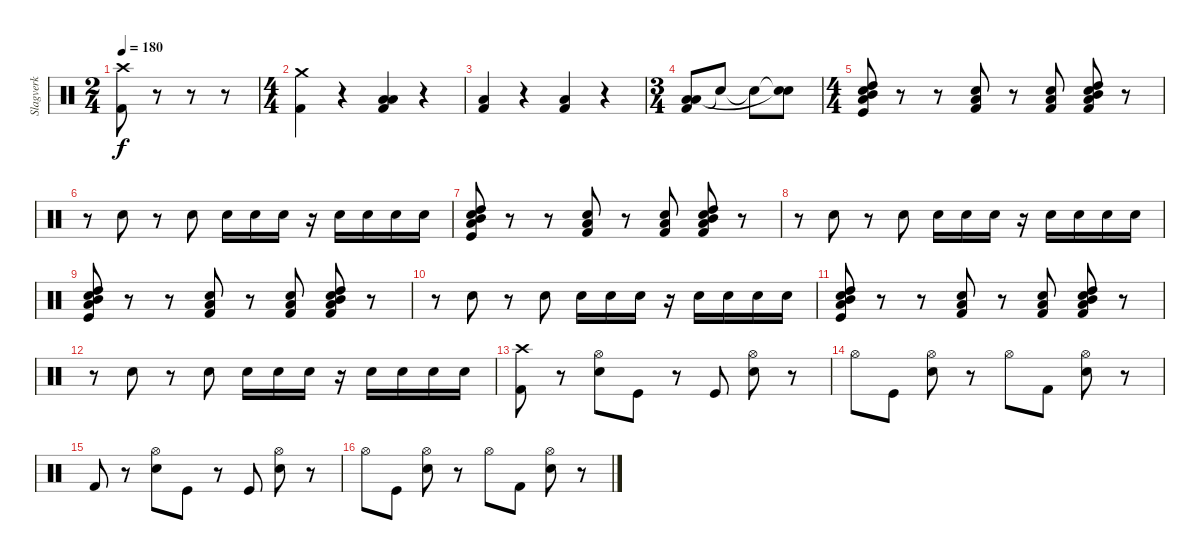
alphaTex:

\track ("Slagverk" "Slagverk") {instrument percussion}
\staff {score}
\articulation defaults
\ts (2 4)
\tempo 180
\clef neutral
\ks c
("Crash high (hit)" "Kick (hit) 2").8{dy f} r.8 r.8 r.8 |
\ts (4 4)
("Crash medium (hit)" "Kick (hit) 2").4 r.4 ("Low Floor Tom (hit)" "Low Tom (hit)" "Kick (hit) 2").4 r.4 |
("Low Floor Tom (hit)" "Kick (hit) 2").4 r.4 ("Low Floor Tom (hit)" "Kick (hit) 2").4 r.4 |
\ts (3 4)
("Low Tom (hit)" "Low Floor Tom (hit)" "Kick (hit) 2").8 "Snare (hit)"{t}.8 "Snare (hit)"{t}.8 ("Snare (hit)"{t} "Snare (hit)"{t}).8 |
\ts (4 4)
("Electric Snare (hit)" "Low Tom (hit)" "Mid Tom (hit)" "High Tom (hit)" "Kick (hit)").8 r.8 r.8 ("Electric Snare (hit)" "Low Tom (hit)" "Kick (hit) 2").8 r.8 ("Electric Snare (hit)" "Low Tom (hit)" "Kick (hit) 2").8 ("Electric Snare (hit)" "Mid Tom (hit)" "High Tom (hit)" "Low Tom (hit)" "Kick (hit) 2").8 r.8 |
r.8 "Electric Snare (hit)".8 r.8 "Electric Snare (hit)".8 "Electric Snare (hit)".16 "Electric Snare (hit)".16 "Electric Snare (hit)".16 r.16 "Electric Snare (hit)".16 "Electric Snare (hit)".16 "Electric Snare (hit)".16 "Electric Snare (hit)".16 |
("Electric Snare (hit)" "Low Tom (hit)" "Mid Tom (hit)" "High Tom (hit)" "Kick (hit)").8 r.8 r.8 ("Electric Snare (hit)" "Low Tom (hit)" "Kick (hit) 2").8 r.8 ("Electric Snare (hit)" "Low Tom (hit)" "Kick (hit) 2").8 ("Electric Snare (hit)" "Mid Tom (hit)" "High Tom (hit)" "Low Tom (hit)" "Kick (hit) 2").8 r.8 |
r.8 "Electric Snare (hit)".8 r.8 "Electric Snare (hit)".8 "Electric Snare (hit)".16 "Electric Snare (hit)".16 "Electric Snare (hit)".16 r.16 "Electric Snare (hit)".16 "Electric Snare (hit)".16 "Electric Snare (hit)".16 "Electric Snare (hit)".16 |
("Electric Snare (hit)" "Low Tom (hit)" "Mid Tom (hit)" "High Tom (hit)" "Kick (hit)").8 r.8 r.8 ("Electric Snare (hit)" "Low Tom (hit)" "Kick (hit) 2").8 r.8 ("Electric Snare (hit)" "Low Tom (hit)" "Kick (hit) 2").8 ("Electric Snare (hit)" "Mid Tom (hit)" "High Tom (hit)" "Low Tom (hit)" "Kick (hit) 2").8 r.8 |
r.8 "Electric Snare (hit)".8 r.8 "Electric Snare (hit)".8 "Electric Snare (hit)".16 "Electric Snare (hit)".16 "Electric Snare (hit)".16 r.16 "Electric Snare (hit)".16 "Electric Snare (hit)".16 "Electric Snare (hit)".16 "Electric Snare (hit)".16 |
("Electric Snare (hit)" "Low Tom (hit)" "Mid Tom (hit)" "High Tom (hit)" "Kick (hit)").8 r.8 r.8 ("Electric Snare (hit)" "Low Tom (hit)" "Kick (hit) 2").8 r.8 ("Electric Snare (hit)" "Low Tom (hit)" "Kick (hit) 2").8 ("Electric Snare (hit)" "Mid Tom (hit)" "High Tom (hit)" "Low Tom (hit)" "Kick (hit) 2").8 r.8 |
r.8 "Electric Snare (hit)".8 r.8 "Electric Snare (hit)".8 "Electric Snare (hit)".16 "Electric Snare (hit)".16 "Electric Snare (hit)".16 r.16 "Electric Snare (hit)".16 "Electric Snare (hit)".16 "Electric Snare (hit)".16 "Electric Snare (hit)".16 |
("Crash high (hit)" "Kick (hit) 2").8 r.8 ("Hi-Hat (open)" "Electric Snare (hit)").8 "Kick (hit)".8 r.8 "Kick (hit)".8 ("Hi-Hat (open)" "Electric Snare (hit)").8 r.8 |
"Hi-Hat (open)".8 "Kick (hit)".8 ("Hi-Hat (open)" "Electric Snare (hit)").8 r.8 "Hi-Hat (open)".8 "Kick (hit) 2".8 ("Hi-Hat (open)" "Electric Snare (hit)").8 r.8 |
"Kick (hit) 2".8 r.8 ("Hi-Hat (open)" "Electric Snare (hit)").8 "Kick (hit)".8 r.8 "Kick (hit)".8 ("Hi-Hat (open)" "Electric Snare (hit)").8 r.8 |
"Hi-Hat (open)".8 "Kick (hit)".8 ("Hi-Hat (open)" "Electric Snare (hit)").8 r.8 "Hi-Hat (open)".8 "Kick (hit) 2".8 ("Hi-Hat (open)" "Electric Snare (hit)").8 r.8
